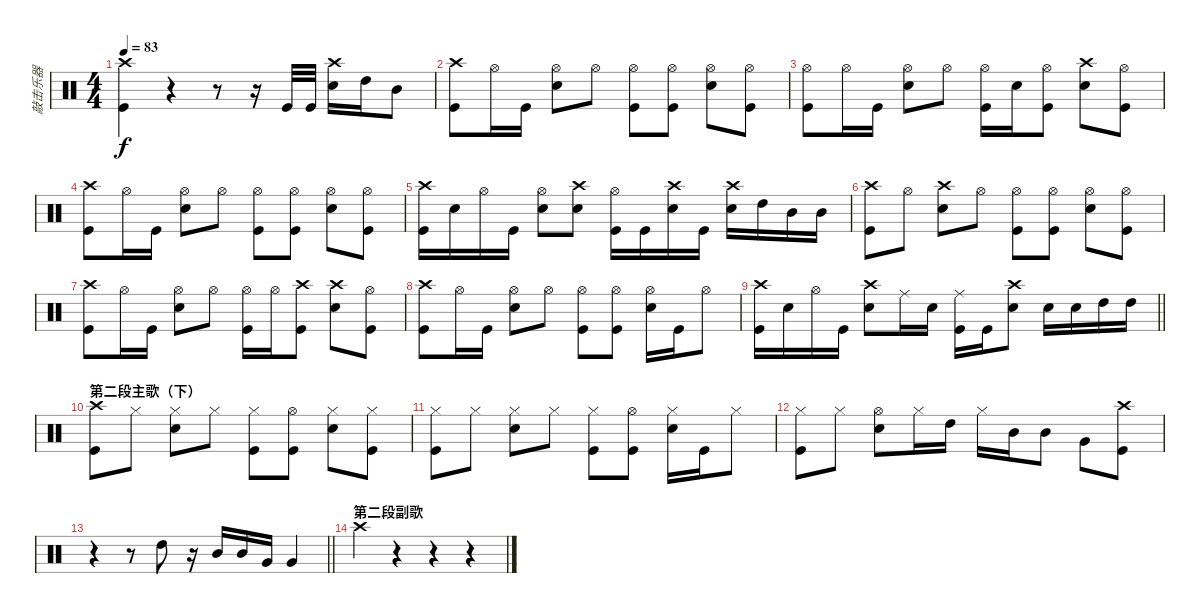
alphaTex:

\track ("敲击乐器" "敲击乐器") {mute instrument percussion}
\staff {score}
\articulation defaults
\ts (4 4)
\tempo 83
\clef neutral
\ks c
("Crash high (hit)" "Kick (hit)").4{dy f} r.4 r.8 r.16 "Kick (hit)".32 "Kick (hit)".32 ("Crash high (hit)" "Snare (hit) 2").16 "High Tom (hit)".16 "Mid Tom (hit)".8 |
("Kick (hit)" "Crash high (hit)").8 "Hi-Hat (open)".16 "Kick (hit)".16 ("Hi-Hat (open)" "Snare (hit) 2").8 "Hi-Hat (open)".8 ("Hi-Hat (open)" "Kick (hit)").8 ("Hi-Hat (open)" "Kick (hit)").8 ("Hi-Hat (open)" "Snare (hit) 2").8 ("Hi-Hat (open)" "Kick (hit)").8 |
("Hi-Hat (open)" "Kick (hit)").8 "Hi-Hat (open)".16 "Kick (hit)".16 ("Hi-Hat (open)" "Snare (hit) 2").8 "Hi-Hat (open)".8 ("Hi-Hat (open)" "Kick (hit)").16 "Snare (hit) 2".16 ("Hi-Hat (open)" "Kick (hit)").8 ("Crash high (hit)" "Snare (hit) 2").8 ("Hi-Hat (open)" "Kick (hit)").8 |
("Kick (hit)" "Crash high (hit)").8 "Hi-Hat (open)".16 "Kick (hit)".16 ("Hi-Hat (open)" "Snare (hit) 2").8 "Hi-Hat (open)".8 ("Hi-Hat (open)" "Kick (hit)").8 ("Hi-Hat (open)" "Kick (hit)").8 ("Hi-Hat (open)" "Snare (hit) 2").8 ("Hi-Hat (open)" "Kick (hit)").8 |
("Crash high (hit)" "Kick (hit)").16 "Snare (hit) 2".16 "Hi-Hat (open)".16 "Kick (hit)".16 ("Hi-Hat (open)" "Snare (hit) 2").8 ("Crash high (hit)" "Snare (hit) 2").8 ("Hi-Hat (open)" "Kick (hit)").16 "Kick (hit)".16 ("Crash high (hit)" "Snare (hit) 2").16 "Kick (hit)".16 ("Crash high (hit)" "Snare (hit) 2").16 "High Tom (hit)".16 "Mid Tom (hit)".16 "Mid Tom (hit)".16 |
("Kick (hit)" "Crash high (hit)").8 "Hi-Hat (open)".8 ("Crash high (hit)" "Snare (hit) 2").8 "Hi-Hat (open)".8 ("Hi-Hat (open)" "Kick (hit)").8 ("Hi-Hat (open)" "Kick (hit)").8 ("Hi-Hat (open)" "Snare (hit) 2").8 ("Hi-Hat (open)" "Kick (hit)").8 |
("Crash high (hit)" "Kick (hit)").8 "Hi-Hat (open)".16 "Kick (hit)".16 ("Hi-Hat (open)" "Snare (hit) 2").8 "Hi-Hat (open)".8 ("Hi-Hat (open)" "Kick (hit)").16 "Hi-Hat (open)".16 ("Crash high (hit)" "Kick (hit)").8 ("Crash high (hit)" "Snare (hit) 2").8 ("Kick (hit)" "Hi-Hat (open)").8 |
("Crash high (hit)" "Kick (hit)").8 "Hi-Hat (open)".16 "Kick (hit)".16 ("Hi-Hat (open)" "Snare (hit) 2").8 "Hi-Hat (open)".8 ("Hi-Hat (open)" "Kick (hit)").8 ("Hi-Hat (open)" "Kick (hit)").8 ("Hi-Hat (open)" "Snare (hit) 2").16 "Kick (hit)".16 "Hi-Hat (open)".8 |
\barLineRight lightlight
("Crash high (hit)" "Kick (hit)").16 "Snare (hit) 2".16 "Hi-Hat (open)".16 "Kick (hit)".16 ("Crash high (hit)" "Snare (hit) 2").8 "Ride (middle)".16 "Snare (hit) 2".16 ("Ride (middle)" "Kick (hit)").16 "Kick (hit)".16 ("Crash high (hit)" "Snare (hit) 2").8 "Snare (hit) 2".16 "Snare (hit) 2".16 "High Tom (hit)".16 "High Tom (hit)".16 |
\section ("" "第二段主歌（下）")
("Kick (hit)" "Crash high (hit)").8 "Hi-Hat (closed)".8 ("Hi-Hat (closed)" "Snare (hit) 2").8 "Hi-Hat (closed)".8 ("Hi-Hat (closed)" "Kick (hit)").8 ("Hi-Hat (open)" "Kick (hit)").8 ("Hi-Hat (closed)" "Snare (hit) 2").8 ("Hi-Hat (closed)" "Kick (hit)").8 |
("Hi-Hat (closed)" "Kick (hit)").8 "Hi-Hat (closed)".8 ("Hi-Hat (closed)" "Snare (hit) 2").8 "Hi-Hat (closed)".8 ("Hi-Hat (closed)" "Kick (hit)").8 ("Hi-Hat (open)" "Kick (hit)").8 ("Hi-Hat (closed)" "Snare (hit) 2").16 "Kick (hit)".16 "Hi-Hat (closed)".8 |
("Kick (hit)" "Hi-Hat (closed)").8 "Hi-Hat (closed)".8 ("Snare (hit) 2" "Hi-Hat (open)").8 "Hi-Hat (closed)".16 "High Tom (hit)".16 "Hi-Hat (closed)".16 "Mid Tom (hit)".16 "Mid Tom (hit)".8 "Very Low Tom (hit)".8 ("Crash high (hit)" "Kick (hit)").8 |
\barLineRight lightlight
r.4 r.8 "High Tom (hit)".8 r.16 "Mid Tom (hit)".16 "Mid Tom (hit)".16 "Very Low Tom (hit)".16 "Very Low Tom (hit)".4 |
\section ("" "第二段副歌")
"Crash high (hit)".4 r.4 r.4 r.4
